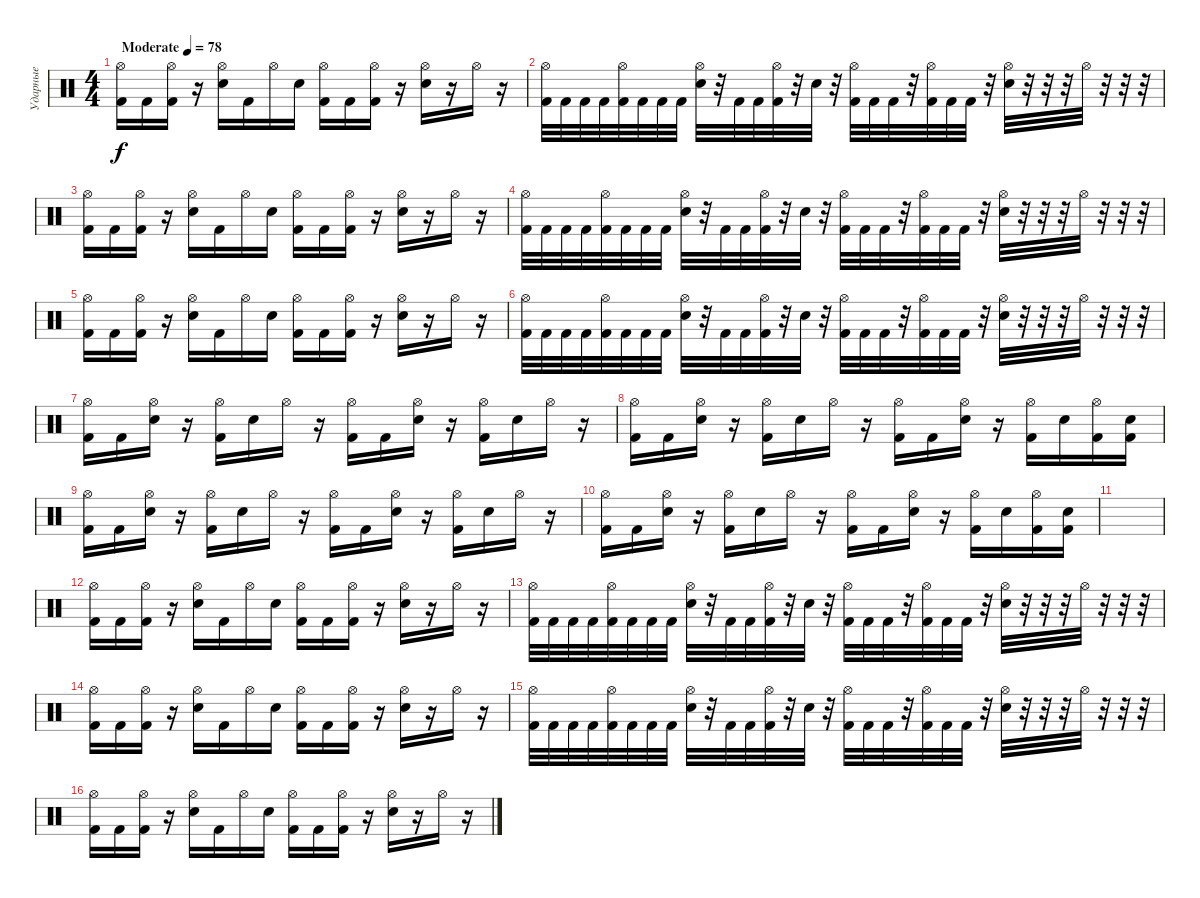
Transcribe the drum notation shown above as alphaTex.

\track ("Ударные" "Ударные") {instrument percussion}
\staff {score}
\articulation defaults
\ts (4 4)
\tempo (78 "Moderate")
\clef neutral
\ks c
("Hi-Hat (open)" "Kick (hit) 2").16{dy f} "Kick (hit) 2".16 ("Hi-Hat (open)" "Kick (hit) 2").16 r.16 ("Electric Snare (hit)" "Hi-Hat (open)").16 "Kick (hit) 2".16 "Hi-Hat (open)".16 "Electric Snare (hit)".16 ("Hi-Hat (open)" "Kick (hit) 2").16 "Kick (hit) 2".16 ("Hi-Hat (open)" "Kick (hit) 2").16 r.16 ("Electric Snare (hit)" "Hi-Hat (open)").16 r.16 "Hi-Hat (open)".16 r.16 |
("Hi-Hat (open)" "Kick (hit) 2").32 "Kick (hit) 2".32 "Kick (hit) 2".32 "Kick (hit) 2".32 ("Hi-Hat (open)" "Kick (hit) 2").32 "Kick (hit) 2".32 "Kick (hit) 2".32 "Kick (hit) 2".32 ("Electric Snare (hit)" "Hi-Hat (open)").32 r.32 "Kick (hit) 2".32 "Kick (hit) 2".32 ("Hi-Hat (open)" "Kick (hit) 2").32 r.32 "Electric Snare (hit)".32 r.32 ("Hi-Hat (open)" "Kick (hit) 2").32 "Kick (hit) 2".32 "Kick (hit) 2".32 r.32 ("Hi-Hat (open)" "Kick (hit) 2").32 "Kick (hit) 2".32 "Kick (hit) 2".32 r.32 ("Electric Snare (hit)" "Hi-Hat (open)").32 r.32 r.32 r.32 "Hi-Hat (open)".32 r.32 r.32 r.32 |
("Hi-Hat (open)" "Kick (hit) 2").16 "Kick (hit) 2".16 ("Hi-Hat (open)" "Kick (hit) 2").16 r.16 ("Electric Snare (hit)" "Hi-Hat (open)").16 "Kick (hit) 2".16 "Hi-Hat (open)".16 "Electric Snare (hit)".16 ("Hi-Hat (open)" "Kick (hit) 2").16 "Kick (hit) 2".16 ("Hi-Hat (open)" "Kick (hit) 2").16 r.16 ("Electric Snare (hit)" "Hi-Hat (open)").16 r.16 "Hi-Hat (open)".16 r.16 |
("Hi-Hat (open)" "Kick (hit) 2").32 "Kick (hit) 2".32 "Kick (hit) 2".32 "Kick (hit) 2".32 ("Hi-Hat (open)" "Kick (hit) 2").32 "Kick (hit) 2".32 "Kick (hit) 2".32 "Kick (hit) 2".32 ("Electric Snare (hit)" "Hi-Hat (open)").32 r.32 "Kick (hit) 2".32 "Kick (hit) 2".32 ("Hi-Hat (open)" "Kick (hit) 2").32 r.32 "Electric Snare (hit)".32 r.32 ("Hi-Hat (open)" "Kick (hit) 2").32 "Kick (hit) 2".32 "Kick (hit) 2".32 r.32 ("Hi-Hat (open)" "Kick (hit) 2").32 "Kick (hit) 2".32 "Kick (hit) 2".32 r.32 ("Electric Snare (hit)" "Hi-Hat (open)").32 r.32 r.32 r.32 "Hi-Hat (open)".32 r.32 r.32 r.32 |
("Hi-Hat (open)" "Kick (hit) 2").16 "Kick (hit) 2".16 ("Hi-Hat (open)" "Kick (hit) 2").16 r.16 ("Electric Snare (hit)" "Hi-Hat (open)").16 "Kick (hit) 2".16 "Hi-Hat (open)".16 "Electric Snare (hit)".16 ("Hi-Hat (open)" "Kick (hit) 2").16 "Kick (hit) 2".16 ("Hi-Hat (open)" "Kick (hit) 2").16 r.16 ("Electric Snare (hit)" "Hi-Hat (open)").16 r.16 "Hi-Hat (open)".16 r.16 |
("Hi-Hat (open)" "Kick (hit) 2").32 "Kick (hit) 2".32 "Kick (hit) 2".32 "Kick (hit) 2".32 ("Hi-Hat (open)" "Kick (hit) 2").32 "Kick (hit) 2".32 "Kick (hit) 2".32 "Kick (hit) 2".32 ("Electric Snare (hit)" "Hi-Hat (open)").32 r.32 "Kick (hit) 2".32 "Kick (hit) 2".32 ("Hi-Hat (open)" "Kick (hit) 2").32 r.32 "Electric Snare (hit)".32 r.32 ("Hi-Hat (open)" "Kick (hit) 2").32 "Kick (hit) 2".32 "Kick (hit) 2".32 r.32 ("Hi-Hat (open)" "Kick (hit) 2").32 "Kick (hit) 2".32 "Kick (hit) 2".32 r.32 ("Electric Snare (hit)" "Hi-Hat (open)").32 r.32 r.32 r.32 "Hi-Hat (open)".32 r.32 r.32 r.32 |
("Hi-Hat (open)" "Kick (hit) 2").16 "Kick (hit) 2".16 ("Electric Snare (hit)" "Hi-Hat (open)").16 r.16 ("Hi-Hat (open)" "Kick (hit) 2").16 "Electric Snare (hit)".16 "Hi-Hat (open)".16 r.16 ("Hi-Hat (open)" "Kick (hit) 2").16 "Kick (hit) 2".16 ("Electric Snare (hit)" "Hi-Hat (open)").16 r.16 ("Hi-Hat (open)" "Kick (hit) 2").16 "Electric Snare (hit)".16 "Hi-Hat (open)".16 r.16 |
("Hi-Hat (open)" "Kick (hit) 2").16 "Kick (hit) 2".16 ("Electric Snare (hit)" "Hi-Hat (open)").16 r.16 ("Hi-Hat (open)" "Kick (hit) 2").16 "Electric Snare (hit)".16 "Hi-Hat (open)".16 r.16 ("Hi-Hat (open)" "Kick (hit) 2").16 "Kick (hit) 2".16 ("Electric Snare (hit)" "Hi-Hat (open)").16 r.16 ("Hi-Hat (open)" "Kick (hit) 2").16 "Electric Snare (hit)".16 ("Hi-Hat (open)" "Kick (hit) 2").16 ("Electric Snare (hit)" "Kick (hit) 2").16 |
("Hi-Hat (open)" "Kick (hit) 2").16 "Kick (hit) 2".16 ("Electric Snare (hit)" "Hi-Hat (open)").16 r.16 ("Hi-Hat (open)" "Kick (hit) 2").16 "Electric Snare (hit)".16 "Hi-Hat (open)".16 r.16 ("Hi-Hat (open)" "Kick (hit) 2").16 "Kick (hit) 2".16 ("Electric Snare (hit)" "Hi-Hat (open)").16 r.16 ("Hi-Hat (open)" "Kick (hit) 2").16 "Electric Snare (hit)".16 "Hi-Hat (open)".16 r.16 |
("Hi-Hat (open)" "Kick (hit) 2").16 "Kick (hit) 2".16 ("Electric Snare (hit)" "Hi-Hat (open)").16 r.16 ("Hi-Hat (open)" "Kick (hit) 2").16 "Electric Snare (hit)".16 "Hi-Hat (open)".16 r.16 ("Hi-Hat (open)" "Kick (hit) 2").16 "Kick (hit) 2".16 ("Electric Snare (hit)" "Hi-Hat (open)").16 r.16 ("Hi-Hat (open)" "Kick (hit) 2").16 "Electric Snare (hit)".16 ("Hi-Hat (open)" "Kick (hit) 2").16 ("Electric Snare (hit)" "Kick (hit) 2").16 |
|
("Hi-Hat (open)" "Kick (hit) 2").16 "Kick (hit) 2".16 ("Hi-Hat (open)" "Kick (hit) 2").16 r.16 ("Electric Snare (hit)" "Hi-Hat (open)").16 "Kick (hit) 2".16 "Hi-Hat (open)".16 "Electric Snare (hit)".16 ("Hi-Hat (open)" "Kick (hit) 2").16 "Kick (hit) 2".16 ("Hi-Hat (open)" "Kick (hit) 2").16 r.16 ("Electric Snare (hit)" "Hi-Hat (open)").16 r.16 "Hi-Hat (open)".16 r.16 |
("Hi-Hat (open)" "Kick (hit) 2").32 "Kick (hit) 2".32 "Kick (hit) 2".32 "Kick (hit) 2".32 ("Hi-Hat (open)" "Kick (hit) 2").32 "Kick (hit) 2".32 "Kick (hit) 2".32 "Kick (hit) 2".32 ("Electric Snare (hit)" "Hi-Hat (open)").32 r.32 "Kick (hit) 2".32 "Kick (hit) 2".32 ("Hi-Hat (open)" "Kick (hit) 2").32 r.32 "Electric Snare (hit)".32 r.32 ("Hi-Hat (open)" "Kick (hit) 2").32 "Kick (hit) 2".32 "Kick (hit) 2".32 r.32 ("Hi-Hat (open)" "Kick (hit) 2").32 "Kick (hit) 2".32 "Kick (hit) 2".32 r.32 ("Electric Snare (hit)" "Hi-Hat (open)").32 r.32 r.32 r.32 "Hi-Hat (open)".32 r.32 r.32 r.32 |
("Hi-Hat (open)" "Kick (hit) 2").16 "Kick (hit) 2".16 ("Hi-Hat (open)" "Kick (hit) 2").16 r.16 ("Electric Snare (hit)" "Hi-Hat (open)").16 "Kick (hit) 2".16 "Hi-Hat (open)".16 "Electric Snare (hit)".16 ("Hi-Hat (open)" "Kick (hit) 2").16 "Kick (hit) 2".16 ("Hi-Hat (open)" "Kick (hit) 2").16 r.16 ("Electric Snare (hit)" "Hi-Hat (open)").16 r.16 "Hi-Hat (open)".16 r.16 |
("Hi-Hat (open)" "Kick (hit) 2").32 "Kick (hit) 2".32 "Kick (hit) 2".32 "Kick (hit) 2".32 ("Hi-Hat (open)" "Kick (hit) 2").32 "Kick (hit) 2".32 "Kick (hit) 2".32 "Kick (hit) 2".32 ("Electric Snare (hit)" "Hi-Hat (open)").32 r.32 "Kick (hit) 2".32 "Kick (hit) 2".32 ("Hi-Hat (open)" "Kick (hit) 2").32 r.32 "Electric Snare (hit)".32 r.32 ("Hi-Hat (open)" "Kick (hit) 2").32 "Kick (hit) 2".32 "Kick (hit) 2".32 r.32 ("Hi-Hat (open)" "Kick (hit) 2").32 "Kick (hit) 2".32 "Kick (hit) 2".32 r.32 ("Electric Snare (hit)" "Hi-Hat (open)").32 r.32 r.32 r.32 "Hi-Hat (open)".32 r.32 r.32 r.32 |
("Hi-Hat (open)" "Kick (hit) 2").16 "Kick (hit) 2".16 ("Hi-Hat (open)" "Kick (hit) 2").16 r.16 ("Electric Snare (hit)" "Hi-Hat (open)").16 "Kick (hit) 2".16 "Hi-Hat (open)".16 "Electric Snare (hit)".16 ("Hi-Hat (open)" "Kick (hit) 2").16 "Kick (hit) 2".16 ("Hi-Hat (open)" "Kick (hit) 2").16 r.16 ("Electric Snare (hit)" "Hi-Hat (open)").16 r.16 "Hi-Hat (open)".16 r.16
